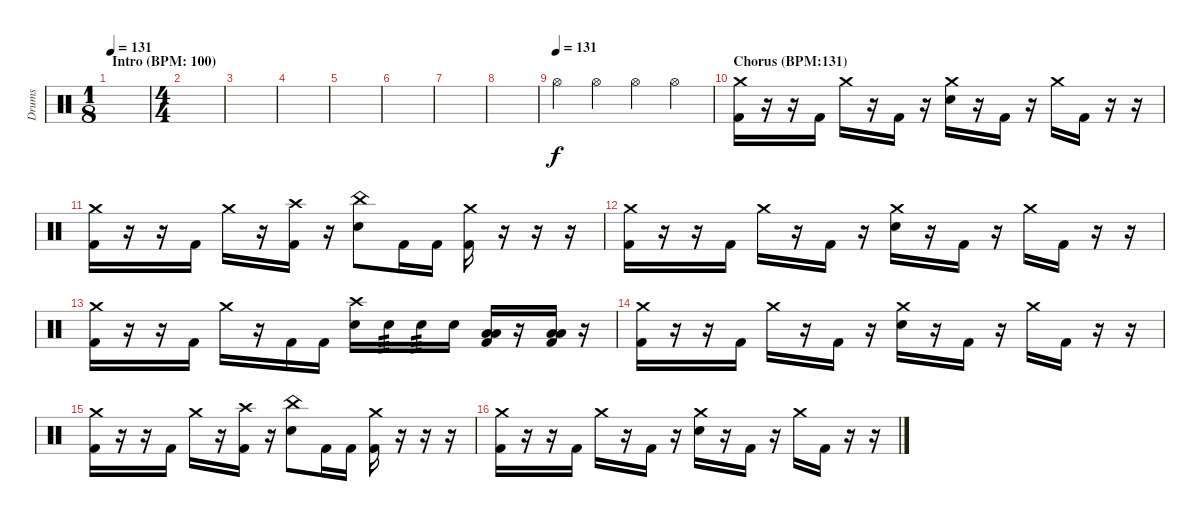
\track ("Drums" "Drums") {instrument percussion}
\staff {score}
\articulation defaults
\ts (1 8)
\section ("" "Intro (BPM: 100)")
\tempo 131
\tempo 100
\tempo 131
\clef neutral
\ks c
|
\ts (4 4)
|
|
|
|
|
|
|
\tempo (131)
"Hi-Hat (open)".4 "Hi-Hat (open)".4 "Hi-Hat (open)".4 "Hi-Hat (open)".4 |
\section ("" "Chorus (BPM:131)")
("Crash medium (hit)" "Kick (hit) 2").16 r.16 r.16 "Kick (hit) 2".16 "Crash medium (hit)".16 r.16 "Kick (hit) 2".16 r.16 ("Crash medium (hit)" "Electric Snare (hit)").16 r.16 "Kick (hit) 2".16 r.16 "Crash medium (hit)".16 "Kick (hit) 2".16 r.16 r.16 |
("Crash medium (hit)" "Kick (hit) 2").16 r.16 r.16 "Kick (hit) 2".16 "Crash medium (hit)".16 r.16 ("Crash high (hit)" "Kick (hit) 2").16 r.16 ("China (hit)" "Electric Snare (hit)").8 "Kick (hit) 2".16 "Kick (hit) 2".16 ("Crash medium (hit)" "Kick (hit) 2").16 r.16 r.16 r.16 |
("Crash medium (hit)" "Kick (hit) 2").16 r.16 r.16 "Kick (hit) 2".16 "Crash medium (hit)".16 r.16 "Kick (hit) 2".16 r.16 ("Crash medium (hit)" "Electric Snare (hit)").16 r.16 "Kick (hit) 2".16 r.16 "Crash medium (hit)".16 "Kick (hit) 2".16 r.16 r.16 |
("Crash medium (hit)" "Kick (hit) 2").16 r.16 r.16 "Kick (hit) 2".16 "Crash medium (hit)".16 r.16 "Kick (hit) 2".16 "Kick (hit) 2".16 ("Crash high (hit)" "Electric Snare (hit)").16 "Electric Snare (hit)".16{tp 3} "Electric Snare (hit)".16{tp 3} "Electric Snare (hit)".16 ("Low Tom (hit)" "Low Floor Tom (hit)" "Kick (hit) 2").16 r.16 ("Low Tom (hit)" "Low Floor Tom (hit)" "Kick (hit) 2").16 r.16 |
("Crash medium (hit)" "Kick (hit) 2").16 r.16 r.16 "Kick (hit) 2".16 "Crash medium (hit)".16 r.16 "Kick (hit) 2".16 r.16 ("Crash medium (hit)" "Electric Snare (hit)").16 r.16 "Kick (hit) 2".16 r.16 "Crash medium (hit)".16 "Kick (hit) 2".16 r.16 r.16 |
("Crash medium (hit)" "Kick (hit) 2").16 r.16 r.16 "Kick (hit) 2".16 "Crash medium (hit)".16 r.16 ("Crash high (hit)" "Kick (hit) 2").16 r.16 ("China (hit)" "Electric Snare (hit)").8 "Kick (hit) 2".16 "Kick (hit) 2".16 ("Crash medium (hit)" "Kick (hit) 2").16 r.16 r.16 r.16 |
("Crash medium (hit)" "Kick (hit) 2").16 r.16 r.16 "Kick (hit) 2".16 "Crash medium (hit)".16 r.16 "Kick (hit) 2".16 r.16 ("Crash medium (hit)" "Electric Snare (hit)").16 r.16 "Kick (hit) 2".16 r.16 "Crash medium (hit)".16 "Kick (hit) 2".16 r.16 r.16
